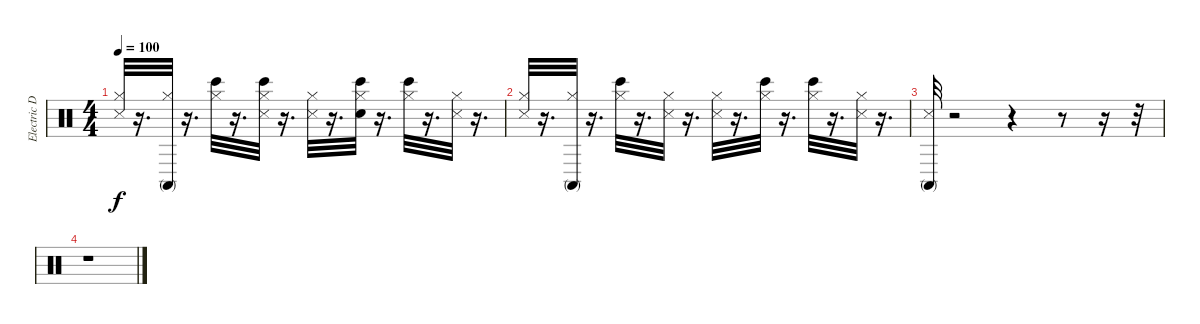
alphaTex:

\track ("Electric Drums" "Electric D") {instrument percussion}
\staff {score}
\articulation defaults
\ts (4 4)
\tempo 100
\clef neutral
\ks c
("Hi-Hat (closed)" "Metronome (hit)").32{dy f} r.16{d} ("Hi-Hat (closed)" "Conga high (mute)").32 r.16{d} ("Hi-Hat (closed)" "Bongo High (hit)").32 r.16{d} ("Hi-Hat (closed)" "Bongo High (hit)" "Metronome (hit)").32 r.16{d} ("Hi-Hat (closed)" "Metronome (hit)").32 r.16{d} ("Snare (hit)" "Hi-Hat (closed)" "Bongo High (hit)").32 r.16{d} ("Hi-Hat (closed)" "Bongo High (hit)").32 r.16{d} ("Hi-Hat (closed)" "Metronome (hit)").32 r.16{d} |
("Hi-Hat (closed)" "Metronome (hit)").32 r.16{d} ("Hi-Hat (closed)" "Conga high (mute)").32 r.16{d} ("Hi-Hat (closed)" "Bongo High (hit)").32 r.16{d} ("Hi-Hat (closed)" "Metronome (hit)").32 r.16{d} ("Hi-Hat (closed)" "Metronome (hit)").32 r.16{d} ("Hi-Hat (closed)" "Bongo High (hit)").32 r.16{d} ("Hi-Hat (closed)" "Bongo High (hit)").32 r.16{d} ("Hi-Hat (closed)" "Metronome (hit)").32 r.16{d} |
("Conga high (mute)" "Metronome (hit)").32 r.2 r.4 r.8 r.16 r.32 |
r.1
